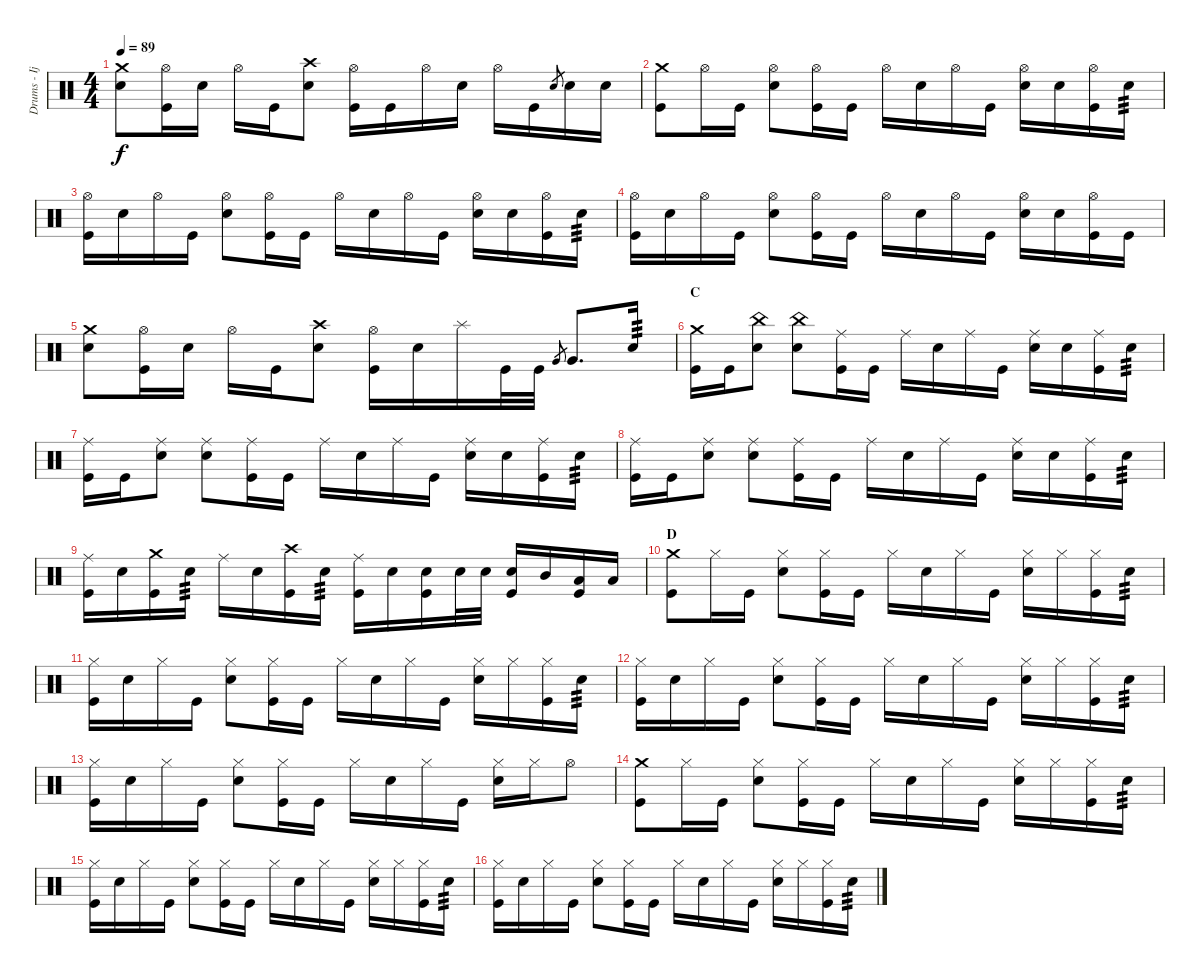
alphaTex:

\track ("Drums - Ijichi" "Drums - Ij") {instrument percussion}
\staff {score}
\articulation defaults
\ts (4 4)
\tempo 89
\clef neutral
\ks c
("Crash medium (hit)" "Electric Snare (hit)").8{dy f} ("Hi-Hat (open)" "Kick (hit)").16 "Electric Snare (hit)".16 "Hi-Hat (open)".16 "Kick (hit)".16 ("Crash high (hit)" "Electric Snare (hit)").8 ("Hi-Hat (open)" "Kick (hit)").16 "Kick (hit)".16 "Hi-Hat (open)".16 "Electric Snare (hit)".16 "Hi-Hat (open)".16 "Kick (hit)".16 "Electric Snare (hit)".8{gr} "Electric Snare (hit)".16 "Electric Snare (hit)".16 |
("Crash medium (hit)" "Kick (hit)").8 "Hi-Hat (open)".16 "Kick (hit)".16 ("Hi-Hat (open)" "Electric Snare (hit)").8 ("Hi-Hat (open)" "Kick (hit)").16 "Kick (hit)".16 "Hi-Hat (open)".16 "Electric Snare (hit)".16 "Hi-Hat (open)".16 "Kick (hit)".16 ("Hi-Hat (open)" "Electric Snare (hit)").16 "Electric Snare (hit)".16 ("Hi-Hat (open)" "Kick (hit)").16 "Electric Snare (hit)".16{tp 3} |
("Hi-Hat (open)" "Kick (hit)").16 "Electric Snare (hit)".16 "Hi-Hat (open)".16 "Kick (hit)".16 ("Hi-Hat (open)" "Electric Snare (hit)").8 ("Hi-Hat (open)" "Kick (hit)").16 "Kick (hit)".16 "Hi-Hat (open)".16 "Electric Snare (hit)".16 "Hi-Hat (open)".16 "Kick (hit)".16 ("Hi-Hat (open)" "Electric Snare (hit)").16 "Electric Snare (hit)".16 ("Hi-Hat (open)" "Kick (hit)").16 "Electric Snare (hit)".16{tp 3} |
("Hi-Hat (open)" "Kick (hit)").16 "Electric Snare (hit)".16 "Hi-Hat (open)".16 "Kick (hit)".16 ("Hi-Hat (open)" "Electric Snare (hit)").8 ("Hi-Hat (open)" "Kick (hit)").16 "Kick (hit)".16 "Hi-Hat (open)".16 "Electric Snare (hit)".16 "Hi-Hat (open)".16 "Kick (hit)".16 ("Hi-Hat (open)" "Electric Snare (hit)").16 "Electric Snare (hit)".16 ("Hi-Hat (open)" "Kick (hit)").16 "Kick (hit)".16 |
("Crash medium (hit)" "Electric Snare (hit)").8 ("Hi-Hat (open)" "Kick (hit)").16 "Electric Snare (hit)".16 "Hi-Hat (open)".16 "Kick (hit)".16 ("Crash high (hit)" "Electric Snare (hit)").8 ("Hi-Hat (open)" "Kick (hit)").16 "Electric Snare (hit)".16 "Splash (hit)".16 "Kick (hit)".32 "Kick (hit)".32 "Very Low Tom (hit)".8{gr} "Very Low Tom (hit)".8{d} "Electric Snare (hit)".16{tp 3} |
\section ("" "C")
("Crash medium (hit)" "Kick (hit)").16 "Kick (hit)".16 ("China (hit)" "Electric Snare (hit)").8 ("China (hit)" "Electric Snare (hit)").8 ("Ride (middle)" "Kick (hit)").16 "Kick (hit)".16 "Ride (middle)".16 "Electric Snare (hit)".16 "Ride (middle)".16 "Kick (hit)".16 ("Ride (middle)" "Electric Snare (hit)").16 "Electric Snare (hit)".16 ("Ride (middle)" "Kick (hit)").16 "Electric Snare (hit)".16{tp 3} |
("Ride (middle)" "Kick (hit)").16 "Kick (hit)".16 ("Ride (middle)" "Electric Snare (hit)").8 ("Ride (middle)" "Electric Snare (hit)").8 ("Ride (middle)" "Kick (hit)").16 "Kick (hit)".16 "Ride (middle)".16 "Electric Snare (hit)".16 "Ride (middle)".16 "Kick (hit)".16 ("Ride (middle)" "Electric Snare (hit)").16 "Electric Snare (hit)".16 ("Ride (middle)" "Kick (hit)").16 "Electric Snare (hit)".16{tp 3} |
("Ride (middle)" "Kick (hit)").16 "Kick (hit)".16 ("Ride (middle)" "Electric Snare (hit)").8 ("Ride (middle)" "Electric Snare (hit)").8 ("Ride (middle)" "Kick (hit)").16 "Kick (hit)".16 "Ride (middle)".16 "Electric Snare (hit)".16 "Ride (middle)".16 "Kick (hit)".16 ("Ride (middle)" "Electric Snare (hit)").16 "Electric Snare (hit)".16 ("Ride (middle)" "Kick (hit)").16 "Electric Snare (hit)".16{tp 3} |
("Ride (middle)" "Kick (hit)").16 "Electric Snare (hit)".16 ("Crash medium (hit)" "Kick (hit)").16 "Electric Snare (hit)".16{tp 3} "Ride (middle)".16 "Electric Snare (hit)".16 ("Crash high (hit)" "Kick (hit)").16 "Electric Snare (hit)".16{tp 3} ("Ride (middle)" "Kick (hit)").16 "Electric Snare (hit)".16 ("Electric Snare (hit)" "Kick (hit)").16 "Electric Snare (hit)".32 "Electric Snare (hit)".32 ("Electric Snare (hit)" "Kick (hit)").16 "Mid Tom (hit)".16 ("Low Tom (hit)" "Kick (hit)").16 "Low Tom (hit)".16 |
\section ("" "D")
("Crash medium (hit)" "Kick (hit)").8 "Hi-Hat (closed)".16 "Kick (hit)".16 ("Hi-Hat (closed)" "Electric Snare (hit)").8 ("Hi-Hat (closed)" "Kick (hit)").16 "Kick (hit)".16 "Hi-Hat (closed)".16 "Electric Snare (hit)".16 "Hi-Hat (closed)".16 "Kick (hit)".16 ("Hi-Hat (closed)" "Electric Snare (hit)").16 "Hi-Hat (closed)".16 ("Hi-Hat (closed)" "Kick (hit)").16 "Electric Snare (hit)".16{tp 3} |
("Hi-Hat (closed)" "Kick (hit)").16 "Electric Snare (hit)".16 "Hi-Hat (closed)".16 "Kick (hit)".16 ("Hi-Hat (closed)" "Electric Snare (hit)").8 ("Hi-Hat (closed)" "Kick (hit)").16 "Kick (hit)".16 "Hi-Hat (closed)".16 "Electric Snare (hit)".16 "Hi-Hat (closed)".16 "Kick (hit)".16 ("Hi-Hat (closed)" "Electric Snare (hit)").16 "Hi-Hat (closed)".16 ("Hi-Hat (closed)" "Kick (hit)").16 "Electric Snare (hit)".16{tp 3} |
("Hi-Hat (closed)" "Kick (hit)").16 "Electric Snare (hit)".16 "Hi-Hat (closed)".16 "Kick (hit)".16 ("Hi-Hat (closed)" "Electric Snare (hit)").8 ("Hi-Hat (closed)" "Kick (hit)").16 "Kick (hit)".16 "Hi-Hat (closed)".16 "Electric Snare (hit)".16 "Hi-Hat (closed)".16 "Kick (hit)".16 ("Hi-Hat (closed)" "Electric Snare (hit)").16 "Hi-Hat (closed)".16 ("Hi-Hat (closed)" "Kick (hit)").16 "Electric Snare (hit)".16{tp 3} |
("Hi-Hat (closed)" "Kick (hit)").16 "Electric Snare (hit)".16 "Hi-Hat (closed)".16 "Kick (hit)".16 ("Hi-Hat (closed)" "Electric Snare (hit)").8 ("Hi-Hat (closed)" "Kick (hit)").16 "Kick (hit)".16 "Hi-Hat (closed)".16 "Electric Snare (hit)".16 "Hi-Hat (closed)".16 "Kick (hit)".16 ("Hi-Hat (closed)" "Electric Snare (hit)").16 "Hi-Hat (closed)".16 "Hi-Hat (open)".8 |
("Crash medium (hit)" "Kick (hit)").8 "Hi-Hat (closed)".16 "Kick (hit)".16 ("Hi-Hat (closed)" "Electric Snare (hit)").8 ("Hi-Hat (closed)" "Kick (hit)").16 "Kick (hit)".16 "Hi-Hat (closed)".16 "Electric Snare (hit)".16 "Hi-Hat (closed)".16 "Kick (hit)".16 ("Hi-Hat (closed)" "Electric Snare (hit)").16 "Hi-Hat (closed)".16 ("Hi-Hat (closed)" "Kick (hit)").16 "Electric Snare (hit)".16{tp 3} |
("Hi-Hat (closed)" "Kick (hit)").16 "Electric Snare (hit)".16 "Hi-Hat (closed)".16 "Kick (hit)".16 ("Hi-Hat (closed)" "Electric Snare (hit)").8 ("Hi-Hat (closed)" "Kick (hit)").16 "Kick (hit)".16 "Hi-Hat (closed)".16 "Electric Snare (hit)".16 "Hi-Hat (closed)".16 "Kick (hit)".16 ("Hi-Hat (closed)" "Electric Snare (hit)").16 "Hi-Hat (closed)".16 ("Hi-Hat (closed)" "Kick (hit)").16 "Electric Snare (hit)".16{tp 3} |
("Hi-Hat (closed)" "Kick (hit)").16 "Electric Snare (hit)".16 "Hi-Hat (closed)".16 "Kick (hit)".16 ("Hi-Hat (closed)" "Electric Snare (hit)").8 ("Hi-Hat (closed)" "Kick (hit)").16 "Kick (hit)".16 "Hi-Hat (closed)".16 "Electric Snare (hit)".16 "Hi-Hat (closed)".16 "Kick (hit)".16 ("Hi-Hat (closed)" "Electric Snare (hit)").16 "Hi-Hat (closed)".16 ("Hi-Hat (closed)" "Kick (hit)").16 "Electric Snare (hit)".16{tp 3}
